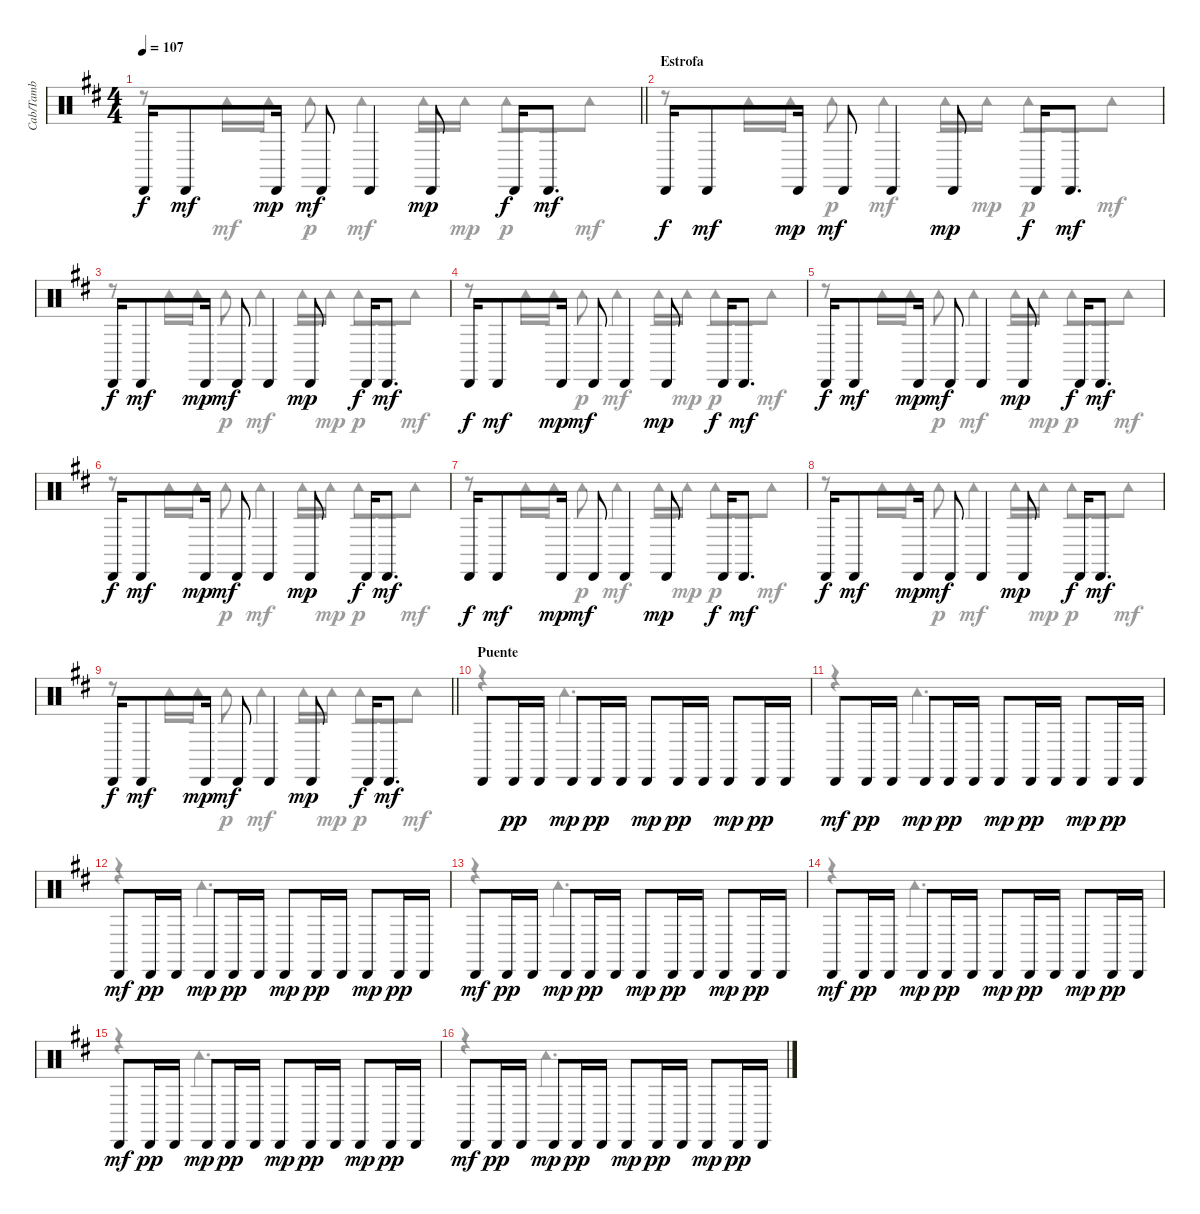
\track ("Cab/Tamb" "Cab/Tamb") {instrument percussion}
\staff {score}
\articulation defaults
\voice
\ts (4 4)
\tempo 107
\clef neutral
\barLineRight lightlight
\ks d "Cabasa (hit)".16{dy f} "Cabasa (hit)".8{dy mf} "Cabasa (hit)".16{dy mp} "Cabasa (hit)".8{dy mf} "Cabasa (hit)".4 "Cabasa (hit)".8{dy mp} "Cabasa (hit)".16{dy f} "Cabasa (hit)".8{d dy mf}
|
\section ("" "Estrofa")
"Cabasa (hit)".16{dy f} "Cabasa (hit)".8{dy mf} "Cabasa (hit)".16{dy mp} "Cabasa (hit)".8{dy mf} "Cabasa (hit)".4 "Cabasa (hit)".8{dy mp} "Cabasa (hit)".16{dy f} "Cabasa (hit)".8{d dy mf} |
"Cabasa (hit)".16{dy f} "Cabasa (hit)".8{dy mf} "Cabasa (hit)".16{dy mp} "Cabasa (hit)".8{dy mf} "Cabasa (hit)".4 "Cabasa (hit)".8{dy mp} "Cabasa (hit)".16{dy f} "Cabasa (hit)".8{d dy mf} |
"Cabasa (hit)".16{dy f} "Cabasa (hit)".8{dy mf} "Cabasa (hit)".16{dy mp} "Cabasa (hit)".8{dy mf} "Cabasa (hit)".4 "Cabasa (hit)".8{dy mp} "Cabasa (hit)".16{dy f} "Cabasa (hit)".8{d dy mf} |
"Cabasa (hit)".16{dy f} "Cabasa (hit)".8{dy mf} "Cabasa (hit)".16{dy mp} "Cabasa (hit)".8{dy mf} "Cabasa (hit)".4 "Cabasa (hit)".8{dy mp} "Cabasa (hit)".16{dy f} "Cabasa (hit)".8{d dy mf} |
"Cabasa (hit)".16{dy f} "Cabasa (hit)".8{dy mf} "Cabasa (hit)".16{dy mp} "Cabasa (hit)".8{dy mf} "Cabasa (hit)".4 "Cabasa (hit)".8{dy mp} "Cabasa (hit)".16{dy f} "Cabasa (hit)".8{d dy mf} |
"Cabasa (hit)".16{dy f} "Cabasa (hit)".8{dy mf} "Cabasa (hit)".16{dy mp} "Cabasa (hit)".8{dy mf} "Cabasa (hit)".4 "Cabasa (hit)".8{dy mp} "Cabasa (hit)".16{dy f} "Cabasa (hit)".8{d dy mf} |
"Cabasa (hit)".16{dy f} "Cabasa (hit)".8{dy mf} "Cabasa (hit)".16{dy mp} "Cabasa (hit)".8{dy mf} "Cabasa (hit)".4 "Cabasa (hit)".8{dy mp} "Cabasa (hit)".16{dy f} "Cabasa (hit)".8{d dy mf} |
\barLineRight lightlight "Cabasa (hit)".16{dy f} "Cabasa (hit)".8{dy mf} "Cabasa (hit)".16{dy mp} "Cabasa (hit)".8{dy mf} "Cabasa (hit)".4 "Cabasa (hit)".8{dy mp} "Cabasa (hit)".16{dy f} "Cabasa (hit)".8{d dy mf}
|
\section ("" "Puente")
"Cabasa (hit)".8 "Cabasa (hit)".16{dy pp} "Cabasa (hit)".16 "Cabasa (hit)".8{dy mp} "Cabasa (hit)".16{dy pp} "Cabasa (hit)".16 "Cabasa (hit)".8{dy mp} "Cabasa (hit)".16{dy pp} "Cabasa (hit)".16 "Cabasa (hit)".8{dy mp} "Cabasa (hit)".16{dy pp} "Cabasa (hit)".16 |
"Cabasa (hit)".8{dy mf} "Cabasa (hit)".16{dy pp} "Cabasa (hit)".16 "Cabasa (hit)".8{dy mp} "Cabasa (hit)".16{dy pp} "Cabasa (hit)".16 "Cabasa (hit)".8{dy mp} "Cabasa (hit)".16{dy pp} "Cabasa (hit)".16 "Cabasa (hit)".8{dy mp} "Cabasa (hit)".16{dy pp} "Cabasa (hit)".16 |
"Cabasa (hit)".8{dy mf} "Cabasa (hit)".16{dy pp} "Cabasa (hit)".16 "Cabasa (hit)".8{dy mp} "Cabasa (hit)".16{dy pp} "Cabasa (hit)".16 "Cabasa (hit)".8{dy mp} "Cabasa (hit)".16{dy pp} "Cabasa (hit)".16 "Cabasa (hit)".8{dy mp} "Cabasa (hit)".16{dy pp} "Cabasa (hit)".16 |
"Cabasa (hit)".8{dy mf} "Cabasa (hit)".16{dy pp} "Cabasa (hit)".16 "Cabasa (hit)".8{dy mp} "Cabasa (hit)".16{dy pp} "Cabasa (hit)".16 "Cabasa (hit)".8{dy mp} "Cabasa (hit)".16{dy pp} "Cabasa (hit)".16 "Cabasa (hit)".8{dy mp} "Cabasa (hit)".16{dy pp} "Cabasa (hit)".16 |
"Cabasa (hit)".8{dy mf} "Cabasa (hit)".16{dy pp} "Cabasa (hit)".16 "Cabasa (hit)".8{dy mp} "Cabasa (hit)".16{dy pp} "Cabasa (hit)".16 "Cabasa (hit)".8{dy mp} "Cabasa (hit)".16{dy pp} "Cabasa (hit)".16 "Cabasa (hit)".8{dy mp} "Cabasa (hit)".16{dy pp} "Cabasa (hit)".16 |
"Cabasa (hit)".8{dy mf} "Cabasa (hit)".16{dy pp} "Cabasa (hit)".16 "Cabasa (hit)".8{dy mp} "Cabasa (hit)".16{dy pp} "Cabasa (hit)".16 "Cabasa (hit)".8{dy mp} "Cabasa (hit)".16{dy pp} "Cabasa (hit)".16 "Cabasa (hit)".8{dy mp} "Cabasa (hit)".16{dy pp} "Cabasa (hit)".16 |
"Cabasa (hit)".8{dy mf} "Cabasa (hit)".16{dy pp} "Cabasa (hit)".16 "Cabasa (hit)".8{dy mp} "Cabasa (hit)".16{dy pp} "Cabasa (hit)".16 "Cabasa (hit)".8{dy mp} "Cabasa (hit)".16{dy pp} "Cabasa (hit)".16 "Cabasa (hit)".8{dy mp} "Cabasa (hit)".16{dy pp} "Cabasa (hit)".16
\voice
\clef neutral
\ottava regular
\simile none
\barLineRight lightlight
\ks d
r.8{dy mf} "Tambourine (hit)".16 "Tambourine (hit)".16{dy mp} "Tambourine (hit)".8{dy p} "Tambourine (hit)".4{dy mf} "Tambourine (hit)".16 "Tambourine (hit)".16{dy mp} "Tambourine (hit)".8{dy p} "Tambourine (hit)".8{dy mf} |
r.8 "Tambourine (hit)".16 "Tambourine (hit)".16{dy mp} "Tambourine (hit)".8{dy p} "Tambourine (hit)".4{dy mf} "Tambourine (hit)".16 "Tambourine (hit)".16{dy mp} "Tambourine (hit)".8{dy p} "Tambourine (hit)".8{dy mf} |
r.8 "Tambourine (hit)".16 "Tambourine (hit)".16{dy mp} "Tambourine (hit)".8{dy p} "Tambourine (hit)".4{dy mf} "Tambourine (hit)".16 "Tambourine (hit)".16{dy mp} "Tambourine (hit)".8{dy p} "Tambourine (hit)".8{dy mf} |
r.8 "Tambourine (hit)".16 "Tambourine (hit)".16{dy mp} "Tambourine (hit)".8{dy p} "Tambourine (hit)".4{dy mf} "Tambourine (hit)".16 "Tambourine (hit)".16{dy mp} "Tambourine (hit)".8{dy p} "Tambourine (hit)".8{dy mf} |
r.8 "Tambourine (hit)".16 "Tambourine (hit)".16{dy mp} "Tambourine (hit)".8{dy p} "Tambourine (hit)".4{dy mf} "Tambourine (hit)".16 "Tambourine (hit)".16{dy mp} "Tambourine (hit)".8{dy p} "Tambourine (hit)".8{dy mf} |
r.8 "Tambourine (hit)".16 "Tambourine (hit)".16{dy mp} "Tambourine (hit)".8{dy p} "Tambourine (hit)".4{dy mf} "Tambourine (hit)".16 "Tambourine (hit)".16{dy mp} "Tambourine (hit)".8{dy p} "Tambourine (hit)".8{dy mf} |
r.8 "Tambourine (hit)".16 "Tambourine (hit)".16{dy mp} "Tambourine (hit)".8{dy p} "Tambourine (hit)".4{dy mf} "Tambourine (hit)".16 "Tambourine (hit)".16{dy mp} "Tambourine (hit)".8{dy p} "Tambourine (hit)".8{dy mf} |
r.8 "Tambourine (hit)".16 "Tambourine (hit)".16{dy mp} "Tambourine (hit)".8{dy p} "Tambourine (hit)".4{dy mf} "Tambourine (hit)".16 "Tambourine (hit)".16{dy mp} "Tambourine (hit)".8{dy p} "Tambourine (hit)".8{dy mf} |
\barLineRight lightlight
r.8 "Tambourine (hit)".16 "Tambourine (hit)".16{dy mp} "Tambourine (hit)".8{dy p} "Tambourine (hit)".4{dy mf} "Tambourine (hit)".16 "Tambourine (hit)".16{dy mp} "Tambourine (hit)".8{dy p} "Tambourine (hit)".8{dy mf} |
r.4 "Tambourine (hit)".2{d} |
r.4 "Tambourine (hit)".2{d} |
r.4 "Tambourine (hit)".2{d} |
r.4 "Tambourine (hit)".2{d} |
r.4 "Tambourine (hit)".2{d} |
r.4 "Tambourine (hit)".2{d} |
r.4 "Tambourine (hit)".2{d}
